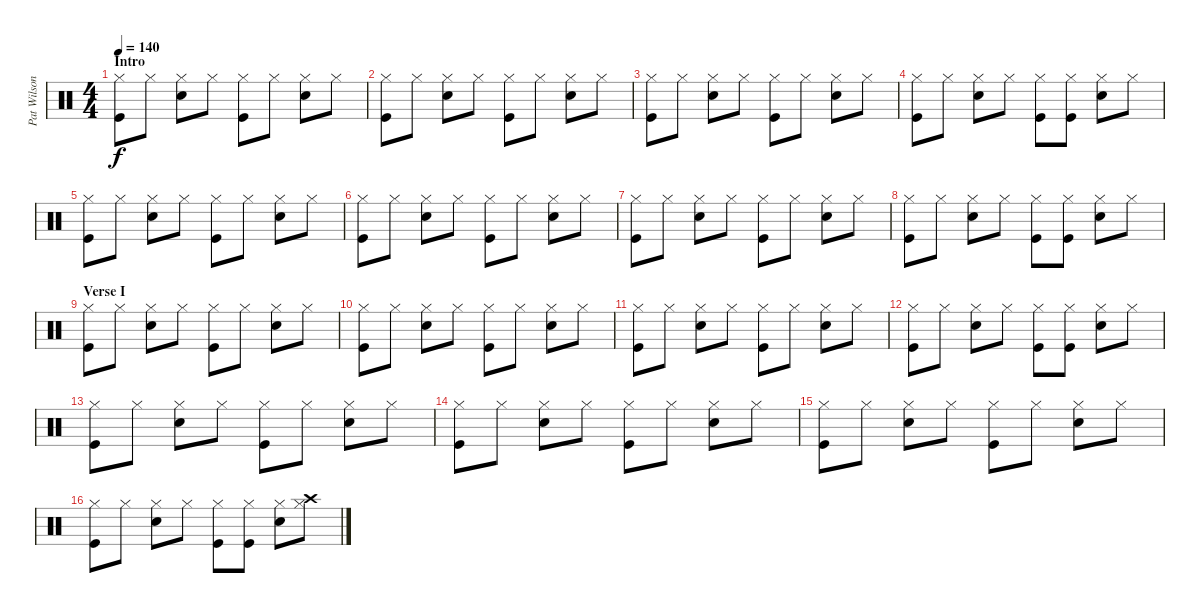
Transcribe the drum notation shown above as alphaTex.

\track ("Pat Wilson " "Pat Wilson") {instrument percussion}
\staff {score}
\articulation defaults
\ts (4 4)
\section ("" "Intro")
\tempo 140
\clef neutral
\ks c
("Kick (hit)" "Hi-Hat (closed)").8{dy f} "Hi-Hat (closed)".8 ("Snare (hit) 2" "Hi-Hat (closed)").8 "Hi-Hat (closed)".8 ("Kick (hit)" "Hi-Hat (closed)").8 "Hi-Hat (closed)".8 ("Snare (hit) 2" "Hi-Hat (closed)").8 "Hi-Hat (closed)".8 |
("Kick (hit)" "Hi-Hat (closed)").8 "Hi-Hat (closed)".8 ("Snare (hit) 2" "Hi-Hat (closed)").8 "Hi-Hat (closed)".8 ("Kick (hit)" "Hi-Hat (closed)").8 "Hi-Hat (closed)".8 ("Snare (hit) 2" "Hi-Hat (closed)").8 "Hi-Hat (closed)".8 |
("Kick (hit)" "Hi-Hat (closed)").8 "Hi-Hat (closed)".8 ("Snare (hit) 2" "Hi-Hat (closed)").8 "Hi-Hat (closed)".8 ("Kick (hit)" "Hi-Hat (closed)").8 "Hi-Hat (closed)".8 ("Snare (hit) 2" "Hi-Hat (closed)").8 "Hi-Hat (closed)".8 |
("Kick (hit)" "Hi-Hat (closed)").8 "Hi-Hat (closed)".8 ("Snare (hit) 2" "Hi-Hat (closed)").8 "Hi-Hat (closed)".8 ("Kick (hit)" "Hi-Hat (closed)").8 ("Kick (hit)" "Hi-Hat (closed)").8 ("Snare (hit) 2" "Hi-Hat (closed)").8 "Hi-Hat (closed)".8 |
("Kick (hit)" "Hi-Hat (closed)").8 "Hi-Hat (closed)".8 ("Snare (hit) 2" "Hi-Hat (closed)").8 "Hi-Hat (closed)".8 ("Kick (hit)" "Hi-Hat (closed)").8 "Hi-Hat (closed)".8 ("Snare (hit) 2" "Hi-Hat (closed)").8 "Hi-Hat (closed)".8 |
("Kick (hit)" "Hi-Hat (closed)").8 "Hi-Hat (closed)".8 ("Snare (hit) 2" "Hi-Hat (closed)").8 "Hi-Hat (closed)".8 ("Kick (hit)" "Hi-Hat (closed)").8 "Hi-Hat (closed)".8 ("Snare (hit) 2" "Hi-Hat (closed)").8 "Hi-Hat (closed)".8 |
("Kick (hit)" "Hi-Hat (closed)").8 "Hi-Hat (closed)".8 ("Snare (hit) 2" "Hi-Hat (closed)").8 "Hi-Hat (closed)".8 ("Kick (hit)" "Hi-Hat (closed)").8 "Hi-Hat (closed)".8 ("Snare (hit) 2" "Hi-Hat (closed)").8 "Hi-Hat (closed)".8 |
("Kick (hit)" "Hi-Hat (closed)").8 "Hi-Hat (closed)".8 ("Snare (hit) 2" "Hi-Hat (closed)").8 "Hi-Hat (closed)".8 ("Kick (hit)" "Hi-Hat (closed)").8 ("Kick (hit)" "Hi-Hat (closed)").8 ("Snare (hit) 2" "Hi-Hat (closed)").8 "Hi-Hat (closed)".8 |
\section ("" "Verse I")
("Kick (hit)" "Hi-Hat (closed)").8 "Hi-Hat (closed)".8 ("Snare (hit) 2" "Hi-Hat (closed)").8 "Hi-Hat (closed)".8 ("Kick (hit)" "Hi-Hat (closed)").8 "Hi-Hat (closed)".8 ("Snare (hit) 2" "Hi-Hat (closed)").8 "Hi-Hat (closed)".8 |
("Kick (hit)" "Hi-Hat (closed)").8 "Hi-Hat (closed)".8 ("Snare (hit) 2" "Hi-Hat (closed)").8 "Hi-Hat (closed)".8 ("Kick (hit)" "Hi-Hat (closed)").8 "Hi-Hat (closed)".8 ("Snare (hit) 2" "Hi-Hat (closed)").8 "Hi-Hat (closed)".8 |
("Kick (hit)" "Hi-Hat (closed)").8 "Hi-Hat (closed)".8 ("Snare (hit) 2" "Hi-Hat (closed)").8 "Hi-Hat (closed)".8 ("Kick (hit)" "Hi-Hat (closed)").8 "Hi-Hat (closed)".8 ("Snare (hit) 2" "Hi-Hat (closed)").8 "Hi-Hat (closed)".8 |
("Kick (hit)" "Hi-Hat (closed)").8 "Hi-Hat (closed)".8 ("Snare (hit) 2" "Hi-Hat (closed)").8 "Hi-Hat (closed)".8 ("Kick (hit)" "Hi-Hat (closed)").8 ("Kick (hit)" "Hi-Hat (closed)").8 ("Snare (hit) 2" "Hi-Hat (closed)").8 "Hi-Hat (closed)".8 |
("Kick (hit)" "Hi-Hat (closed)").8 "Hi-Hat (closed)".8 ("Snare (hit) 2" "Hi-Hat (closed)").8 "Hi-Hat (closed)".8 ("Kick (hit)" "Hi-Hat (closed)").8 "Hi-Hat (closed)".8 ("Snare (hit) 2" "Hi-Hat (closed)").8 "Hi-Hat (closed)".8 |
("Kick (hit)" "Hi-Hat (closed)").8 "Hi-Hat (closed)".8 ("Snare (hit) 2" "Hi-Hat (closed)").8 "Hi-Hat (closed)".8 ("Kick (hit)" "Hi-Hat (closed)").8 "Hi-Hat (closed)".8 ("Snare (hit) 2" "Hi-Hat (closed)").8 "Hi-Hat (closed)".8 |
("Kick (hit)" "Hi-Hat (closed)").8 "Hi-Hat (closed)".8 ("Snare (hit) 2" "Hi-Hat (closed)").8 "Hi-Hat (closed)".8 ("Kick (hit)" "Hi-Hat (closed)").8 "Hi-Hat (closed)".8 ("Snare (hit) 2" "Hi-Hat (closed)").8 "Hi-Hat (closed)".8 |
("Kick (hit)" "Hi-Hat (closed)").8 "Hi-Hat (closed)".8 ("Snare (hit) 2" "Hi-Hat (closed)").8 "Hi-Hat (closed)".8 ("Kick (hit)" "Hi-Hat (closed)").8 ("Kick (hit)" "Hi-Hat (closed)").8 ("Snare (hit) 2" "Hi-Hat (closed)").8 ("Crash high (hit)" "Hi-Hat (closed)").8
